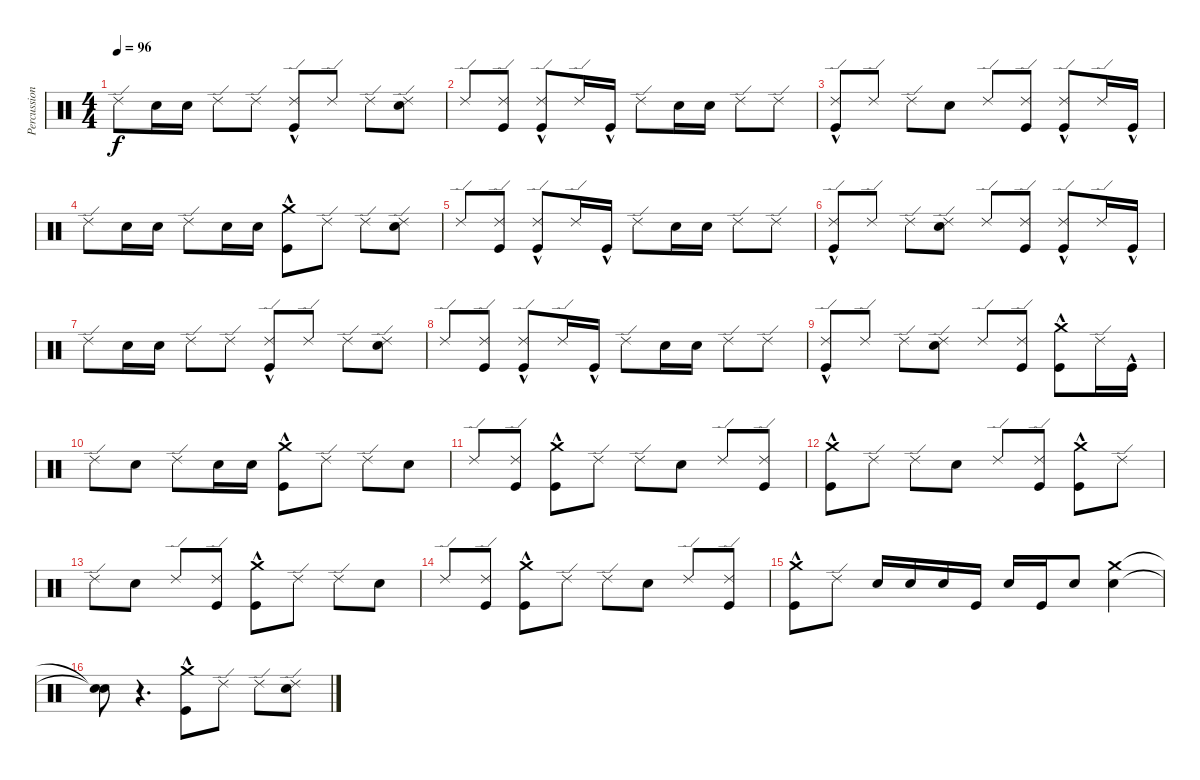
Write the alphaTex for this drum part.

\track ("Percussion" "Percussion") {instrument percussion}
\staff {score}
\articulation defaults
\ts (4 4)
\tempo 96
\clef neutral
\ks c "Ride (edge) 2".8{dy f} "Electric Snare (hit)".16 "Electric Snare (hit)".16 "Ride (edge) 2".8 "Ride (edge) 2".8
("Kick (hit)"{hac} "Ride (edge) 2").8 "Ride (edge) 2".8 "Ride (edge) 2".8 ("Electric Snare (hit)" "Ride (edge) 2").8 |
"Ride (edge) 2".8 ("Kick (hit)" "Ride (edge) 2").8 ("Kick (hit)"{hac} "Ride (edge) 2").8 "Ride (edge) 2".16 "Kick (hit)"{hac}.16 "Ride (edge) 2".8 "Electric Snare (hit)".16 "Electric Snare (hit)".16 "Ride (edge) 2".8 "Ride (edge) 2".8 |
("Kick (hit)"{hac} "Ride (edge) 2").8 "Ride (edge) 2".8 "Ride (edge) 2".8 "Electric Snare (hit)".8 "Ride (edge) 2".8 ("Kick (hit)" "Ride (edge) 2").8 ("Kick (hit)"{hac} "Ride (edge) 2").8 "Ride (edge) 2".16 "Kick (hit)"{hac}.16 |
"Ride (edge) 2".8 "Electric Snare (hit)".16 "Electric Snare (hit)".16 "Ride (edge) 2".8 "Electric Snare (hit)".16 "Electric Snare (hit)".16 ("Kick (hit)"{hac} "Crash medium (hit)").8 "Ride (edge) 2".8 "Ride (edge) 2".8 ("Electric Snare (hit)" "Ride (edge) 2").8 |
"Ride (edge) 2".8 ("Kick (hit)" "Ride (edge) 2").8 ("Kick (hit)"{hac} "Ride (edge) 2").8 "Ride (edge) 2".16 "Kick (hit)"{hac}.16 "Ride (edge) 2".8 "Electric Snare (hit)".16 "Electric Snare (hit)".16 "Ride (edge) 2".8 "Ride (edge) 2".8 |
("Kick (hit)"{hac} "Ride (edge) 2").8 "Ride (edge) 2".8 "Ride (edge) 2".8 ("Electric Snare (hit)" "Ride (edge) 2").8 "Ride (edge) 2".8 ("Kick (hit)" "Ride (edge) 2").8 ("Kick (hit)"{hac} "Ride (edge) 2").8 "Ride (edge) 2".16 "Kick (hit)"{hac}.16 |
"Ride (edge) 2".8 "Electric Snare (hit)".16 "Electric Snare (hit)".16 "Ride (edge) 2".8 "Ride (edge) 2".8 ("Kick (hit)"{hac} "Ride (edge) 2").8 "Ride (edge) 2".8 "Ride (edge) 2".8 ("Electric Snare (hit)" "Ride (edge) 2").8 |
"Ride (edge) 2".8 ("Kick (hit)" "Ride (edge) 2").8 ("Kick (hit)"{hac} "Ride (edge) 2").8 "Ride (edge) 2".16 "Kick (hit)"{hac}.16 "Ride (edge) 2".8 "Electric Snare (hit)".16 "Electric Snare (hit)".16 "Ride (edge) 2".8 "Ride (edge) 2".8 |
("Kick (hit)"{hac} "Ride (edge) 2").8 "Ride (edge) 2".8 "Ride (edge) 2".8 ("Electric Snare (hit)" "Ride (edge) 2").8 "Ride (edge) 2".8 ("Kick (hit)" "Ride (edge) 2").8 ("Kick (hit)"{hac} "Crash medium (hit)").8 "Ride (edge) 2".16 "Kick (hit)"{hac}.16 |
"Ride (edge) 2".8 "Electric Snare (hit)".8 "Ride (edge) 2".8 "Electric Snare (hit)".16 "Electric Snare (hit)".16 ("Kick (hit)"{hac} "Crash medium (hit)").8 "Ride (edge) 2".8 "Ride (edge) 2".8 "Electric Snare (hit)".8 |
"Ride (edge) 2".8 ("Kick (hit)" "Ride (edge) 2").8 ("Kick (hit)"{hac} "Crash medium (hit)").8 "Ride (edge) 2".8 "Ride (edge) 2".8 "Electric Snare (hit)".8 "Ride (edge) 2".8 ("Kick (hit)" "Ride (edge) 2").8 |
("Kick (hit)"{hac} "Crash medium (hit)").8 "Ride (edge) 2".8 "Ride (edge) 2".8 "Electric Snare (hit)".8 "Ride (edge) 2".8 ("Kick (hit)" "Ride (edge) 2").8 ("Kick (hit)"{hac} "Crash medium (hit)").8 "Ride (edge) 2".8 |
"Ride (edge) 2".8 "Electric Snare (hit)".8 "Ride (edge) 2".8 ("Kick (hit)" "Ride (edge) 2").8 ("Kick (hit)"{hac} "Crash medium (hit)").8 "Ride (edge) 2".8 "Ride (edge) 2".8 "Electric Snare (hit)".8 |
"Ride (edge) 2".8 ("Kick (hit)" "Ride (edge) 2").8 ("Kick (hit)"{hac} "Crash medium (hit)").8 "Ride (edge) 2".8 "Ride (edge) 2".8 "Electric Snare (hit)".8 "Ride (edge) 2".8 ("Kick (hit)" "Ride (edge) 2").8 |
("Kick (hit)"{hac} "Crash medium (hit)").8 "Ride (edge) 2".8 "Electric Snare (hit)".16 "Electric Snare (hit)".16 "Electric Snare (hit)".16 "Kick (hit)".16 "Electric Snare (hit)".16 "Kick (hit)".16 "Electric Snare (hit)".8 ("Crash medium (hit)" "Electric Snare (hit)").4 |
("Snare (hit)"{t} "Snare (hit)"{t}).8 r.4{d} ("Kick (hit)"{hac} "Crash medium (hit)").8 "Ride (edge) 2".8 "Ride (edge) 2".8 ("Electric Snare (hit)" "Ride (edge) 2").8
